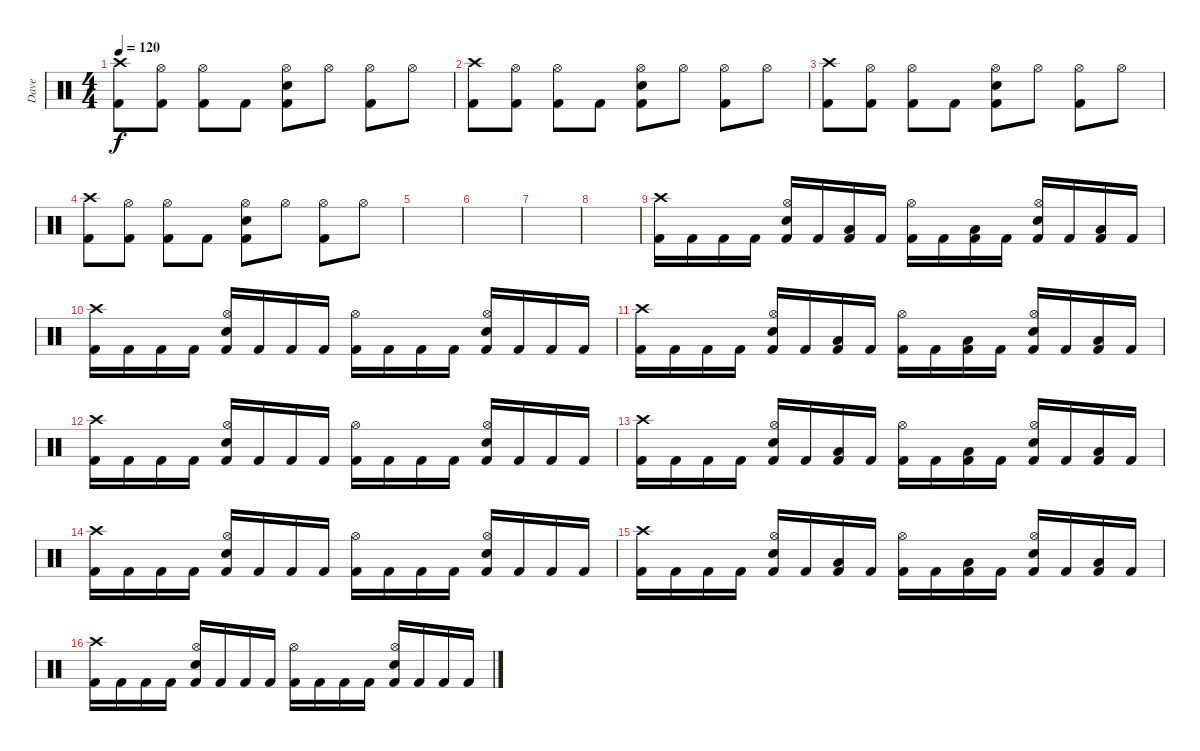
\track ("Dave" "Dave") {instrument percussion}
\staff {score}
\articulation defaults
\ts (4 4)
\tempo 120
\clef neutral
\ks c
("Kick (hit) 2" "Crash high (hit)").8{dy f} ("Kick (hit) 2" "Hi-Hat (open)").8 ("Kick (hit) 2" "Hi-Hat (open)").8 "Kick (hit) 2".8 ("Kick (hit) 2" "Snare (hit) 2" "Hi-Hat (open)").8 "Hi-Hat (open)".8 ("Kick (hit) 2" "Hi-Hat (open)").8 "Hi-Hat (open)".8 |
("Kick (hit) 2" "Crash high (hit)").8 ("Kick (hit) 2" "Hi-Hat (open)").8 ("Kick (hit) 2" "Hi-Hat (open)").8 "Kick (hit) 2".8 ("Kick (hit) 2" "Snare (hit) 2" "Hi-Hat (open)").8 "Hi-Hat (open)".8 ("Kick (hit) 2" "Hi-Hat (open)").8 "Hi-Hat (open)".8 |
("Kick (hit) 2" "Crash high (hit)").8 ("Kick (hit) 2" "Hi-Hat (open)").8 ("Kick (hit) 2" "Hi-Hat (open)").8 "Kick (hit) 2".8 ("Kick (hit) 2" "Snare (hit) 2" "Hi-Hat (open)").8 "Hi-Hat (open)".8 ("Kick (hit) 2" "Hi-Hat (open)").8 "Hi-Hat (open)".8 |
("Kick (hit) 2" "Crash high (hit)").8 ("Kick (hit) 2" "Hi-Hat (open)").8 ("Kick (hit) 2" "Hi-Hat (open)").8 "Kick (hit) 2".8 ("Kick (hit) 2" "Snare (hit) 2" "Hi-Hat (open)").8 "Hi-Hat (open)".8 ("Kick (hit) 2" "Hi-Hat (open)").8 "Hi-Hat (open)".8 |
|
|
|
|
("Kick (hit) 2" "Crash high (hit)").16 "Kick (hit) 2".16 "Kick (hit) 2".16 "Kick (hit) 2".16 ("Kick (hit) 2" "Snare (hit) 2" "Hi-Hat (open)").16 "Kick (hit) 2".16 ("Kick (hit) 2" "Low Tom (hit)").16 "Kick (hit) 2".16 ("Kick (hit) 2" "Hi-Hat (open)").16 "Kick (hit) 2".16 ("Kick (hit) 2" "Low Tom (hit)").16 "Kick (hit) 2".16 ("Kick (hit) 2" "Snare (hit) 2" "Hi-Hat (open)").16 "Kick (hit) 2".16 ("Kick (hit) 2" "Low Floor Tom (hit)").16 "Kick (hit) 2".16 |
("Kick (hit) 2" "Crash high (hit)").16 "Kick (hit) 2".16 "Kick (hit) 2".16 "Kick (hit) 2".16 ("Kick (hit) 2" "Snare (hit) 2" "Hi-Hat (open)").16 "Kick (hit) 2".16 "Kick (hit) 2".16 "Kick (hit) 2".16 ("Kick (hit) 2" "Hi-Hat (open)").16 "Kick (hit) 2".16 "Kick (hit) 2".16 "Kick (hit) 2".16 ("Kick (hit) 2" "Snare (hit) 2" "Hi-Hat (open)").16 "Kick (hit) 2".16 "Kick (hit) 2".16 "Kick (hit) 2".16 |
("Kick (hit) 2" "Crash high (hit)").16 "Kick (hit) 2".16 "Kick (hit) 2".16 "Kick (hit) 2".16 ("Kick (hit) 2" "Snare (hit) 2" "Hi-Hat (open)").16 "Kick (hit) 2".16 ("Kick (hit) 2" "Low Tom (hit)").16 "Kick (hit) 2".16 ("Kick (hit) 2" "Hi-Hat (open)").16 "Kick (hit) 2".16 ("Kick (hit) 2" "Low Tom (hit)").16 "Kick (hit) 2".16 ("Kick (hit) 2" "Snare (hit) 2" "Hi-Hat (open)").16 "Kick (hit) 2".16 ("Kick (hit) 2" "Low Floor Tom (hit)").16 "Kick (hit) 2".16 |
("Kick (hit) 2" "Crash high (hit)").16 "Kick (hit) 2".16 "Kick (hit) 2".16 "Kick (hit) 2".16 ("Kick (hit) 2" "Snare (hit) 2" "Hi-Hat (open)").16 "Kick (hit) 2".16 "Kick (hit) 2".16 "Kick (hit) 2".16 ("Kick (hit) 2" "Hi-Hat (open)").16 "Kick (hit) 2".16 "Kick (hit) 2".16 "Kick (hit) 2".16 ("Kick (hit) 2" "Snare (hit) 2" "Hi-Hat (open)").16 "Kick (hit) 2".16 "Kick (hit) 2".16 "Kick (hit) 2".16 |
("Kick (hit) 2" "Crash high (hit)").16 "Kick (hit) 2".16 "Kick (hit) 2".16 "Kick (hit) 2".16 ("Kick (hit) 2" "Snare (hit) 2" "Hi-Hat (open)").16 "Kick (hit) 2".16 ("Kick (hit) 2" "Low Tom (hit)").16 "Kick (hit) 2".16 ("Kick (hit) 2" "Hi-Hat (open)").16 "Kick (hit) 2".16 ("Kick (hit) 2" "Low Tom (hit)").16 "Kick (hit) 2".16 ("Kick (hit) 2" "Snare (hit) 2" "Hi-Hat (open)").16 "Kick (hit) 2".16 ("Kick (hit) 2" "Low Floor Tom (hit)").16 "Kick (hit) 2".16 |
("Kick (hit) 2" "Crash high (hit)").16 "Kick (hit) 2".16 "Kick (hit) 2".16 "Kick (hit) 2".16 ("Kick (hit) 2" "Snare (hit) 2" "Hi-Hat (open)").16 "Kick (hit) 2".16 "Kick (hit) 2".16 "Kick (hit) 2".16 ("Kick (hit) 2" "Hi-Hat (open)").16 "Kick (hit) 2".16 "Kick (hit) 2".16 "Kick (hit) 2".16 ("Kick (hit) 2" "Snare (hit) 2" "Hi-Hat (open)").16 "Kick (hit) 2".16 "Kick (hit) 2".16 "Kick (hit) 2".16 |
("Kick (hit) 2" "Crash high (hit)").16 "Kick (hit) 2".16 "Kick (hit) 2".16 "Kick (hit) 2".16 ("Kick (hit) 2" "Snare (hit) 2" "Hi-Hat (open)").16 "Kick (hit) 2".16 ("Kick (hit) 2" "Low Tom (hit)").16 "Kick (hit) 2".16 ("Kick (hit) 2" "Hi-Hat (open)").16 "Kick (hit) 2".16 ("Kick (hit) 2" "Low Tom (hit)").16 "Kick (hit) 2".16 ("Kick (hit) 2" "Snare (hit) 2" "Hi-Hat (open)").16 "Kick (hit) 2".16 ("Kick (hit) 2" "Low Floor Tom (hit)").16 "Kick (hit) 2".16 |
("Kick (hit) 2" "Crash high (hit)").16 "Kick (hit) 2".16 "Kick (hit) 2".16 "Kick (hit) 2".16 ("Kick (hit) 2" "Snare (hit) 2" "Hi-Hat (open)").16 "Kick (hit) 2".16 "Kick (hit) 2".16 "Kick (hit) 2".16 ("Kick (hit) 2" "Hi-Hat (open)").16 "Kick (hit) 2".16 "Kick (hit) 2".16 "Kick (hit) 2".16 ("Kick (hit) 2" "Snare (hit) 2" "Hi-Hat (open)").16 "Kick (hit) 2".16 "Kick (hit) 2".16 "Kick (hit) 2".16
